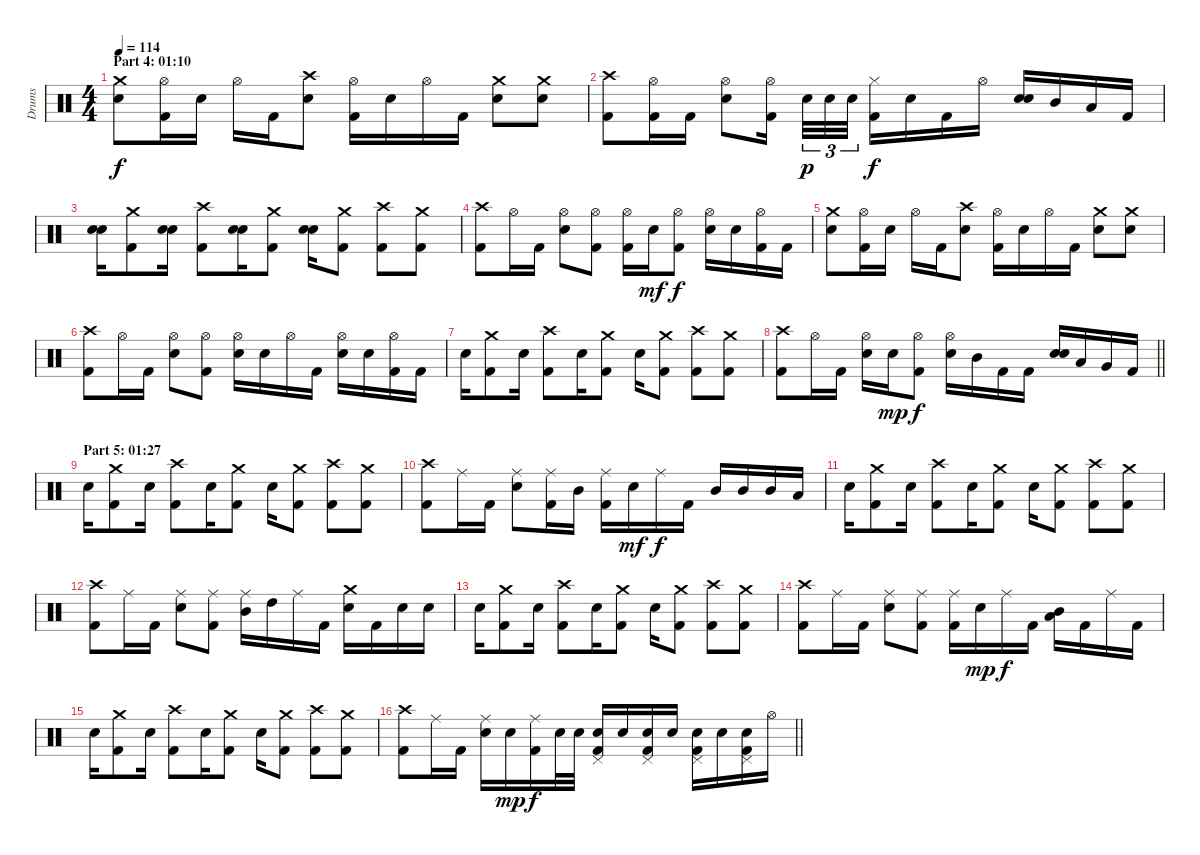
\track ("Drums" "Drums") {instrument percussion}
\staff {score}
\articulation defaults
\ts (4 4)
\section ("" "Part 4: 01:10")
\tempo 114
\clef neutral
\ks c
("Crash medium (hit)" "Electric Snare (hit)").8{dy f} ("Hi-Hat (open)" "Kick (hit) 2").16 "Electric Snare (hit)".16 "Hi-Hat (open)".16 "Kick (hit) 2".16 ("Crash high (hit)" "Electric Snare (hit)").8 ("Hi-Hat (open)" "Kick (hit) 2").16 "Electric Snare (hit)".16 "Hi-Hat (open)".16 "Kick (hit) 2".16 ("Crash medium (hit)" "Electric Snare (hit)").8 ("Crash medium (hit)" "Electric Snare (hit)").8 |
("Crash high (hit)" "Kick (hit) 2").8 ("Hi-Hat (open)" "Kick (hit) 2").16 "Kick (hit) 2".16 ("Hi-Hat (open)" "Electric Snare (hit)").8 ("Hi-Hat (open)" "Kick (hit) 2").16{beam splitsecondary} "Electric Snare (hit)".32{tu (3 2) dy p} "Electric Snare (hit)".32{tu (3 2)} "Electric Snare (hit)".32{tu (3 2)} ("Hi-Hat (closed)" "Kick (hit) 2").16{dy f} "Electric Snare (hit)".16 "Kick (hit) 2".16 "Hi-Hat (open)".16 ("Electric Snare (hit)" "Electric Snare (hit)").16{bd 120} "Mid Tom (hit)".16 "Low Tom (hit)".16 "Kick (hit) 2".16 |
("Electric Snare (hit)" "Electric Snare (hit)").16{bd 60} ("Crash medium (hit)" "Kick (hit) 2").8 ("Electric Snare (hit)" "Electric Snare (hit)").16{bd 60} ("Crash high (hit)" "Kick (hit) 2").8 ("Electric Snare (hit)" "Electric Snare (hit)").16{bd 60} ("Crash medium (hit)" "Kick (hit) 2").8 ("Electric Snare (hit)" "Electric Snare (hit)").16{bd 60} ("Crash medium (hit)" "Kick (hit) 2").8 ("Crash high (hit)" "Kick (hit) 2").8 ("Crash medium (hit)" "Kick (hit) 2").8 |
("Crash high (hit)" "Kick (hit) 2").8 "Hi-Hat (open)".16 "Kick (hit) 2".16 ("Hi-Hat (open)" "Electric Snare (hit)").8 ("Hi-Hat (open)" "Kick (hit) 2").8 ("Hi-Hat (open)" "Kick (hit) 2").16 "Electric Snare (hit)".16{dy mf} ("Hi-Hat (open)" "Kick (hit) 2").8{dy f} ("Hi-Hat (open)" "Electric Snare (hit)").16 "Electric Snare (hit)".16 ("Hi-Hat (open)" "Kick (hit) 2").16 "Kick (hit) 2".16 |
("Crash medium (hit)" "Electric Snare (hit)").8 ("Hi-Hat (open)" "Kick (hit) 2").16 "Electric Snare (hit)".16 "Hi-Hat (open)".16 "Kick (hit) 2".16 ("Crash high (hit)" "Electric Snare (hit)").8 ("Hi-Hat (open)" "Kick (hit) 2").16 "Electric Snare (hit)".16 "Hi-Hat (open)".16 "Kick (hit) 2".16 ("Crash medium (hit)" "Electric Snare (hit)").8 ("Crash medium (hit)" "Electric Snare (hit)").8 |
("Crash high (hit)" "Kick (hit) 2").8 "Hi-Hat (open)".16 "Kick (hit) 2".16 ("Hi-Hat (open)" "Electric Snare (hit)").8 ("Hi-Hat (open)" "Kick (hit) 2").8 ("Hi-Hat (open)" "Electric Snare (hit)").16 "Electric Snare (hit)".16 "Hi-Hat (open)".16 "Kick (hit) 2".16 ("Hi-Hat (open)" "Electric Snare (hit)").16 "Electric Snare (hit)".16 ("Hi-Hat (open)" "Kick (hit) 2").16 "Kick (hit) 2".16 |
"Electric Snare (hit)".16 ("Crash medium (hit)" "Kick (hit) 2").8 "Electric Snare (hit)".16 ("Crash high (hit)" "Kick (hit) 2").8 "Electric Snare (hit)".16 ("Crash medium (hit)" "Kick (hit) 2").8 "Electric Snare (hit)".16 ("Crash medium (hit)" "Kick (hit) 2").8 ("Crash high (hit)" "Kick (hit) 2").8 ("Crash medium (hit)" "Kick (hit) 2").8 |
\barLineRight lightlight
("Crash high (hit)" "Kick (hit) 2").8 "Hi-Hat (open)".16 "Kick (hit) 2".16 ("Hi-Hat (open)" "Electric Snare (hit)").16 "Electric Snare (hit)".16{dy mp} ("Hi-Hat (open)" "Kick (hit) 2").8{dy f} ("Hi-Hat (open)" "Electric Snare (hit)").16 "Mid Tom (hit)".16 "Kick (hit) 2".16 "Kick (hit) 2".16 ("Electric Snare (hit)" "Electric Snare (hit)").16{bd 60} "Low Tom (hit)".16 "Very Low Tom (hit)".16 "Kick (hit) 2".16 |
\section ("" "Part 5: 01:27")
"Electric Snare (hit)".16 ("Crash medium (hit)" "Kick (hit) 2").8 "Electric Snare (hit)".16 ("Crash high (hit)" "Kick (hit) 2").8 "Electric Snare (hit)".16 ("Crash medium (hit)" "Kick (hit) 2").8 "Electric Snare (hit)".16 ("Crash medium (hit)" "Kick (hit) 2").8 ("Crash high (hit)" "Kick (hit) 2").8 ("Crash medium (hit)" "Kick (hit) 2").8 |
("Crash high (hit)" "Kick (hit) 2").8 "Ride (middle)".16 "Kick (hit) 2".16 ("Ride (middle)" "Electric Snare (hit)").8 ("Ride (middle)" "Kick (hit) 2").16 "Mid Tom (hit)".16 ("Ride (middle)" "Kick (hit) 2").16 "Electric Snare (hit)".16{dy mf} "Ride (middle)".16{dy f} "Kick (hit) 2".16 "Mid Tom (hit)".16 "Mid Tom (hit)".16 "Mid Tom (hit)".16 "Low Tom (hit)".16 |
"Electric Snare (hit)".16 ("Crash medium (hit)" "Kick (hit) 2").8 "Electric Snare (hit)".16 ("Crash high (hit)" "Kick (hit) 2").8 "Electric Snare (hit)".16 ("Crash medium (hit)" "Kick (hit) 2").8 "Electric Snare (hit)".16 ("Crash medium (hit)" "Kick (hit) 2").8 ("Crash high (hit)" "Kick (hit) 2").8 ("Crash medium (hit)" "Kick (hit) 2").8 |
("Crash high (hit)" "Kick (hit) 2").8 "Ride (middle)".16 "Kick (hit) 2".16 ("Ride (middle)" "Electric Snare (hit)").8 ("Ride (middle)" "Kick (hit) 2").8 ("Ride (middle)" "Mid Tom (hit)").16 "High Tom (hit)".16 "Ride (middle)".16 "Kick (hit) 2".16 ("Crash medium (hit)" "Electric Snare (hit)").16 "Kick (hit) 2".16 "Electric Snare (hit)".16 "Electric Snare (hit)".16 |
"Electric Snare (hit)".16 ("Crash medium (hit)" "Kick (hit) 2").8 "Electric Snare (hit)".16 ("Crash high (hit)" "Kick (hit) 2").8 "Electric Snare (hit)".16 ("Crash medium (hit)" "Kick (hit) 2").8 "Electric Snare (hit)".16 ("Crash medium (hit)" "Kick (hit) 2").8 ("Crash high (hit)" "Kick (hit) 2").8 ("Crash medium (hit)" "Kick (hit) 2").8 |
("Crash high (hit)" "Kick (hit) 2").8 "Ride (middle)".16 "Kick (hit) 2".16 ("Ride (middle)" "Electric Snare (hit)").8 ("Ride (middle)" "Kick (hit) 2").8 ("Ride (middle)" "Kick (hit) 2").16 "Electric Snare (hit)".16{dy mp} "Ride (middle)".16{dy f} "Kick (hit) 2".16 ("Mid Tom (hit)" "Low Tom (hit)").16{bd 120} "Kick (hit) 2".16 "Ride (middle)".16 "Kick (hit) 2".16 |
"Electric Snare (hit)".16 ("Crash medium (hit)" "Kick (hit) 2").8 "Electric Snare (hit)".16 ("Crash high (hit)" "Kick (hit) 2").8 "Electric Snare (hit)".16 ("Crash medium (hit)" "Kick (hit) 2").8 "Electric Snare (hit)".16 ("Crash medium (hit)" "Kick (hit) 2").8 ("Crash high (hit)" "Kick (hit) 2").8 ("Crash medium (hit)" "Kick (hit) 2").8 |
\barLineRight lightlight
("Crash high (hit)" "Kick (hit) 2").8 "Ride (middle)".16 "Kick (hit) 2".16 ("Ride (middle)" "Electric Snare (hit)").16 "Electric Snare (hit)".16{dy mp} ("Ride (middle)" "Kick (hit) 2").16{dy f} "Electric Snare (hit)".32 "Electric Snare (hit)".32 ("Pedal Hi-Hat (hit)" "Electric Snare (hit)" "Kick (hit) 2").16 "Electric Snare (hit)".16 ("Pedal Hi-Hat (hit)" "Electric Snare (hit)" "Kick (hit) 2").16 "Electric Snare (hit)".16 ("Pedal Hi-Hat (hit)" "Electric Snare (hit)" "Kick (hit) 2").16 "Electric Snare (hit)".16 ("Pedal Hi-Hat (hit)" "Electric Snare (hit)" "Kick (hit) 2").16 "Hi-Hat (open)".16
